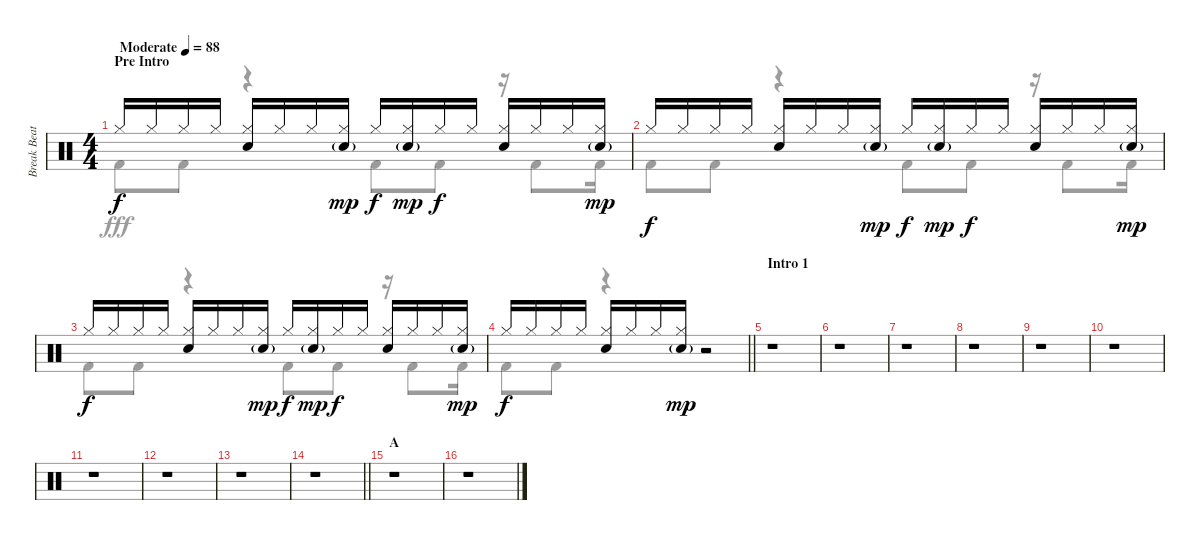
\track ("Break Beats" "Break Beat") {instrument percussion}
\staff {score}
\articulation defaults
\voice
\ts (4 4)
\section ("" "Pre Intro")
\tempo (88 "Moderate")
\clef neutral
\ks c "Hi-Hat (closed)".16{dy f} "Hi-Hat (closed)".16 "Hi-Hat (closed)".16 "Hi-Hat (closed)".16
("Hi-Hat (closed)" "Snare (hit) 2").16 "Hi-Hat (closed)".16 "Hi-Hat (closed)".16 ("Hi-Hat (closed)" "Snare (hit) 2"{g}).16{dy mp} "Hi-Hat (closed)".16{dy f} ("Hi-Hat (closed)" "Snare (hit) 2"{g}).16{dy mp} "Hi-Hat (closed)".16{dy f} "Hi-Hat (closed)".16 ("Hi-Hat (closed)" "Snare (hit) 2").16 "Hi-Hat (closed)".16 "Hi-Hat (closed)".16 ("Hi-Hat (closed)" "Snare (hit) 2"{g}).16{dy mp} |
"Hi-Hat (closed)".16{dy f} "Hi-Hat (closed)".16 "Hi-Hat (closed)".16 "Hi-Hat (closed)".16 ("Hi-Hat (closed)" "Snare (hit) 2").16 "Hi-Hat (closed)".16 "Hi-Hat (closed)".16 ("Hi-Hat (closed)" "Snare (hit) 2"{g}).16{dy mp} "Hi-Hat (closed)".16{dy f} ("Hi-Hat (closed)" "Snare (hit) 2"{g}).16{dy mp} "Hi-Hat (closed)".16{dy f} "Hi-Hat (closed)".16 ("Hi-Hat (closed)" "Snare (hit) 2").16 "Hi-Hat (closed)".16 "Hi-Hat (closed)".16 ("Hi-Hat (closed)" "Snare (hit) 2"{g}).16{dy mp} |
"Hi-Hat (closed)".16{dy f} "Hi-Hat (closed)".16 "Hi-Hat (closed)".16 "Hi-Hat (closed)".16 ("Hi-Hat (closed)" "Snare (hit) 2").16 "Hi-Hat (closed)".16 "Hi-Hat (closed)".16 ("Hi-Hat (closed)" "Snare (hit) 2"{g}).16{dy mp} "Hi-Hat (closed)".16{dy f} ("Hi-Hat (closed)" "Snare (hit) 2"{g}).16{dy mp} "Hi-Hat (closed)".16{dy f} "Hi-Hat (closed)".16 ("Hi-Hat (closed)" "Snare (hit) 2").16 "Hi-Hat (closed)".16 "Hi-Hat (closed)".16 ("Hi-Hat (closed)" "Snare (hit) 2"{g}).16{dy mp} |
\barLineRight lightlight "Hi-Hat (closed)".16{dy f} "Hi-Hat (closed)".16 "Hi-Hat (closed)".16 "Hi-Hat (closed)".16
("Hi-Hat (closed)" "Snare (hit) 2").16 "Hi-Hat (closed)".16 "Hi-Hat (closed)".16 ("Hi-Hat (closed)" "Snare (hit) 2"{g}).16{dy mp} r.2 |
\section ("" "Intro 1")
r.1 |
r.1 |
r.1 |
r.1 |
r.1 |
r.1 |
r.1 |
r.1 |
r.1 |
\barLineRight lightlight
r.1 |
\section ("" "A")
r.1 |
r.1
\voice
\clef neutral
\ottava regular
\simile none
\ks c "Kick (hit) 2".8{dy fff} "Kick (hit) 2".8
r.4 "Kick (hit) 2".8 "Kick (hit) 2".8 r.16 "Kick (hit) 2".8 "Kick (hit) 2".16 |
"Kick (hit) 2".8 "Kick (hit) 2".8 r.4 "Kick (hit) 2".8 "Kick (hit) 2".8 r.16 "Kick (hit) 2".8 "Kick (hit) 2".16 |
"Kick (hit) 2".8 "Kick (hit) 2".8 r.4 "Kick (hit) 2".8 "Kick (hit) 2".8 r.16 "Kick (hit) 2".8 "Kick (hit) 2".16 |
\barLineRight lightlight "Kick (hit) 2".8 "Kick (hit) 2".8
r.4 r.2 |
r.1 |
r.1 |
r.1 |
r.1 |
r.1 |
r.1 |
r.1 |
r.1 |
r.1 |
\barLineRight lightlight
r.1 |
r.1 |
r.1
